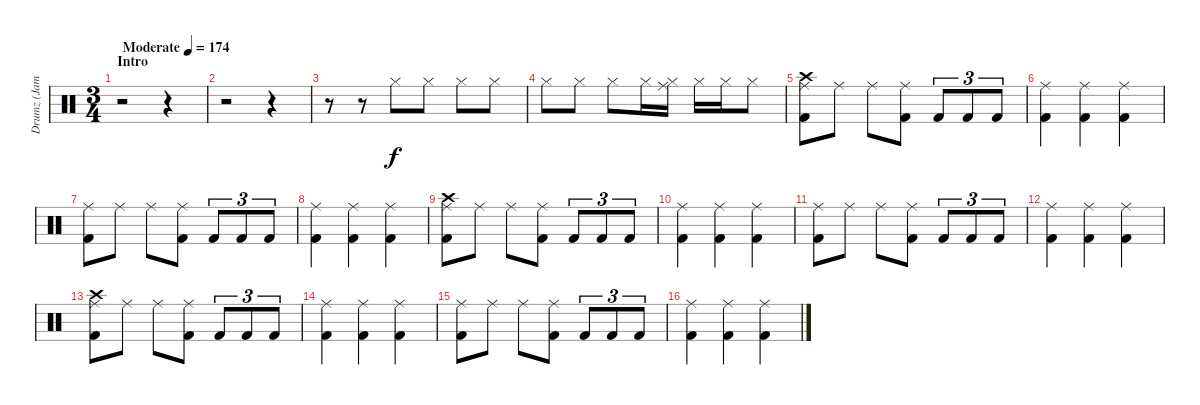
\track ("Drumz (James Kottak)" "Drumz (Jam") {instrument percussion}
\staff {score}
\articulation defaults
\ts (3 4)
\section ("" "Intro")
\tempo (174 "Moderate")
\clef neutral
\ks c
r.2{dy f} r.4 |
r.2 r.4 |
r.8 r.8 "Hi-Hat (closed)".8 "Hi-Hat (closed)".8 "Hi-Hat (closed)".8 "Hi-Hat (closed)".8 |
"Hi-Hat (closed)".8 "Hi-Hat (closed)".8 "Hi-Hat (closed)".8 "Hi-Hat (closed)".16 ("Hi-Hat (closed)" "Ride (middle)").16 "Hi-Hat (closed)".16 "Hi-Hat (closed)".16 "Hi-Hat (closed)".8 |
("Ride (middle)" "Crash high (hit)" "Kick (hit) 2").8 "Ride (middle)".8 "Ride (middle)".8 ("Ride (middle)" "Kick (hit) 2").8 "Kick (hit) 2".8{tu (3 2)} "Kick (hit) 2".8{tu (3 2)} "Kick (hit) 2".8{tu (3 2)} |
("Ride (middle)" "Kick (hit) 2").4 ("Kick (hit) 2" "Ride (middle)").4 ("Ride (middle)" "Kick (hit) 2").4 |
("Ride (middle)" "Kick (hit) 2").8 "Ride (middle)".8 "Ride (middle)".8 ("Ride (middle)" "Kick (hit) 2").8 "Kick (hit) 2".8{tu (3 2)} "Kick (hit) 2".8{tu (3 2)} "Kick (hit) 2".8{tu (3 2)} |
("Ride (middle)" "Kick (hit) 2").4 ("Kick (hit) 2" "Ride (middle)").4 ("Ride (middle)" "Kick (hit) 2").4 |
("Ride (middle)" "Crash high (hit)" "Kick (hit) 2").8 "Ride (middle)".8 "Ride (middle)".8 ("Ride (middle)" "Kick (hit) 2").8 "Kick (hit) 2".8{tu (3 2)} "Kick (hit) 2".8{tu (3 2)} "Kick (hit) 2".8{tu (3 2)} |
("Ride (middle)" "Kick (hit) 2").4 ("Kick (hit) 2" "Ride (middle)").4 ("Ride (middle)" "Kick (hit) 2").4 |
("Ride (middle)" "Kick (hit) 2").8 "Ride (middle)".8 "Ride (middle)".8 ("Ride (middle)" "Kick (hit) 2").8 "Kick (hit) 2".8{tu (3 2)} "Kick (hit) 2".8{tu (3 2)} "Kick (hit) 2".8{tu (3 2)} |
("Ride (middle)" "Kick (hit) 2").4 ("Kick (hit) 2" "Ride (middle)").4 ("Ride (middle)" "Kick (hit) 2").4 |
("Ride (middle)" "Crash high (hit)" "Kick (hit) 2").8 "Ride (middle)".8 "Ride (middle)".8 ("Ride (middle)" "Kick (hit) 2").8 "Kick (hit) 2".8{tu (3 2)} "Kick (hit) 2".8{tu (3 2)} "Kick (hit) 2".8{tu (3 2)} |
("Ride (middle)" "Kick (hit) 2").4 ("Kick (hit) 2" "Ride (middle)").4 ("Ride (middle)" "Kick (hit) 2").4 |
("Ride (middle)" "Kick (hit) 2").8 "Ride (middle)".8 "Ride (middle)".8 ("Ride (middle)" "Kick (hit) 2").8 "Kick (hit) 2".8{tu (3 2)} "Kick (hit) 2".8{tu (3 2)} "Kick (hit) 2".8{tu (3 2)} |
("Ride (middle)" "Kick (hit) 2").4 ("Kick (hit) 2" "Ride (middle)").4 ("Ride (middle)" "Kick (hit) 2").4
